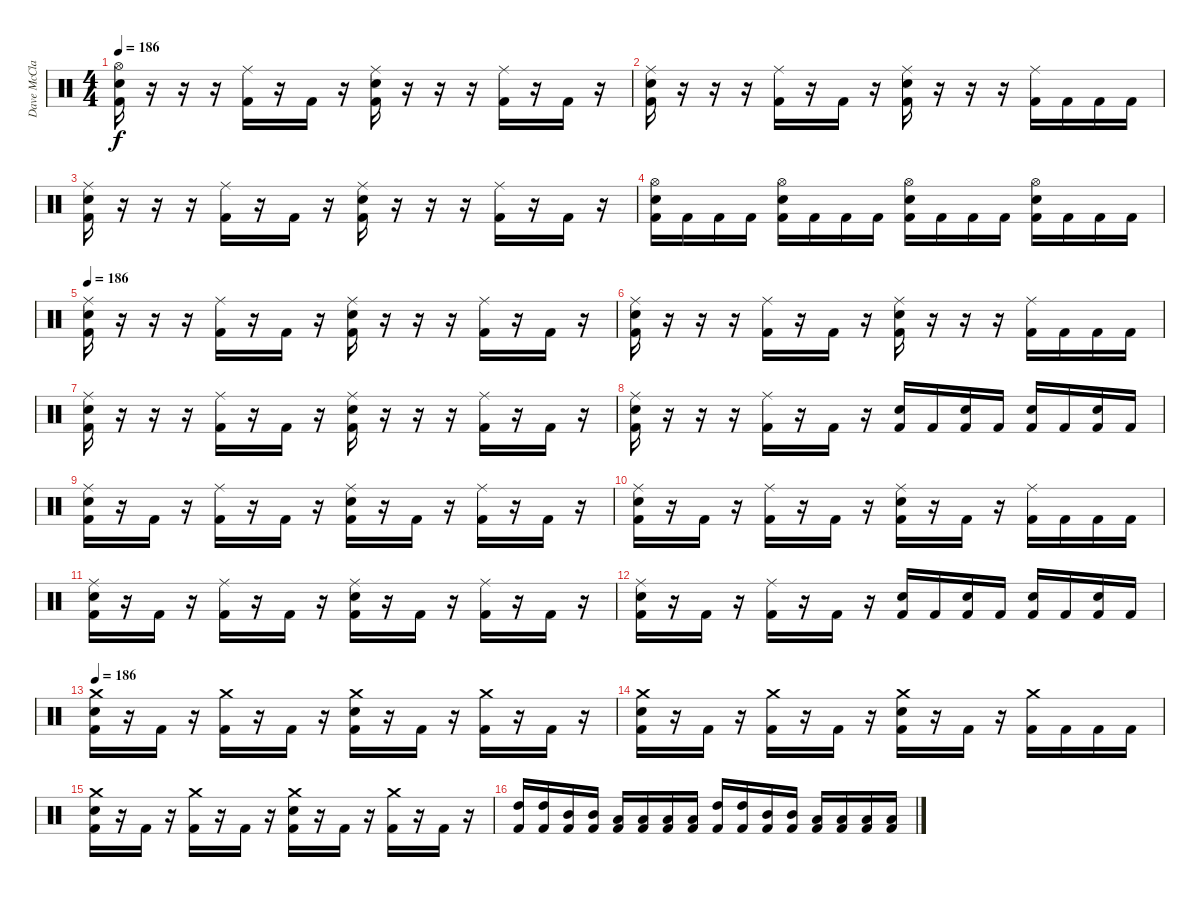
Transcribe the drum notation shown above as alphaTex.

\track ("Dave McClain" "Dave McCla") {instrument percussion}
\staff {score}
\articulation defaults
\ts (4 4)
\tempo 186
\clef neutral
\ks c
("Hi-Hat (open)" "Snare (hit) 2" "Kick (hit) 2").16{dy f} r.16 r.16 r.16 ("Ride (middle)" "Kick (hit) 2").16 r.16 "Kick (hit) 2".16 r.16 ("Ride (middle)" "Snare (hit) 2" "Kick (hit) 2").16 r.16 r.16 r.16 ("Ride (middle)" "Kick (hit) 2").16 r.16 "Kick (hit) 2".16 r.16 |
("Ride (middle)" "Snare (hit) 2" "Kick (hit) 2").16 r.16 r.16 r.16 ("Ride (middle)" "Kick (hit) 2").16 r.16 "Kick (hit) 2".16 r.16 ("Ride (middle)" "Snare (hit) 2" "Kick (hit) 2").16 r.16 r.16 r.16 ("Ride (middle)" "Kick (hit) 2").16 "Kick (hit) 2".16 "Kick (hit) 2".16 "Kick (hit) 2".16 |
("Ride (middle)" "Snare (hit) 2" "Kick (hit) 2").16 r.16 r.16 r.16 ("Ride (middle)" "Kick (hit) 2").16 r.16 "Kick (hit) 2".16 r.16 ("Ride (middle)" "Snare (hit) 2" "Kick (hit) 2").16 r.16 r.16 r.16 ("Ride (middle)" "Kick (hit) 2").16 r.16 "Kick (hit) 2".16 r.16 |
("Hi-Hat (open)" "Snare (hit) 2" "Kick (hit) 2").16 "Kick (hit) 2".16 "Kick (hit) 2".16 "Kick (hit) 2".16 ("Hi-Hat (open)" "Snare (hit) 2" "Kick (hit) 2").16 "Kick (hit) 2".16 "Kick (hit) 2".16 "Kick (hit) 2".16 ("Hi-Hat (open)" "Snare (hit) 2" "Kick (hit) 2").16 "Kick (hit) 2".16 "Kick (hit) 2".16 "Kick (hit) 2".16 ("Hi-Hat (open)" "Snare (hit) 2" "Kick (hit) 2").16 "Kick (hit) 2".16 "Kick (hit) 2".16 "Kick (hit) 2".16 |
\tempo 186
("Ride (middle)" "Snare (hit) 2" "Kick (hit) 2").16 r.16 r.16 r.16 ("Ride (middle)" "Kick (hit) 2").16 r.16 "Kick (hit) 2".16 r.16 ("Ride (middle)" "Snare (hit) 2" "Kick (hit) 2").16 r.16 r.16 r.16 ("Ride (middle)" "Kick (hit) 2").16 r.16 "Kick (hit) 2".16 r.16 |
("Ride (middle)" "Snare (hit) 2" "Kick (hit) 2").16 r.16 r.16 r.16 ("Ride (middle)" "Kick (hit) 2").16 r.16 "Kick (hit) 2".16 r.16 ("Ride (middle)" "Snare (hit) 2" "Kick (hit) 2").16 r.16 r.16 r.16 ("Ride (middle)" "Kick (hit) 2").16 "Kick (hit) 2".16 "Kick (hit) 2".16 "Kick (hit) 2".16 |
("Ride (middle)" "Snare (hit) 2" "Kick (hit) 2").16 r.16 r.16 r.16 ("Ride (middle)" "Kick (hit) 2").16 r.16 "Kick (hit) 2".16 r.16 ("Ride (middle)" "Snare (hit) 2" "Kick (hit) 2").16 r.16 r.16 r.16 ("Ride (middle)" "Kick (hit) 2").16 r.16 "Kick (hit) 2".16 r.16 |
("Ride (middle)" "Snare (hit) 2" "Kick (hit) 2").16 r.16 r.16 r.16 ("Ride (middle)" "Kick (hit) 2").16 r.16 "Kick (hit) 2".16 r.16 ("Snare (hit) 2" "Kick (hit) 2").16 "Kick (hit) 2".16 ("Snare (hit) 2" "Kick (hit) 2").16 "Kick (hit) 2".16 ("Snare (hit) 2" "Kick (hit) 2").16 "Kick (hit) 2".16 ("Snare (hit) 2" "Kick (hit) 2").16 "Kick (hit) 2".16 |
("Ride (middle)" "Snare (hit) 2" "Kick (hit) 2").16 r.16 "Kick (hit) 2".16 r.16 ("Ride (middle)" "Kick (hit) 2").16 r.16 "Kick (hit) 2".16 r.16 ("Ride (middle)" "Snare (hit) 2" "Kick (hit) 2").16 r.16 "Kick (hit) 2".16 r.16 ("Ride (middle)" "Kick (hit) 2").16 r.16 "Kick (hit) 2".16 r.16 |
("Ride (middle)" "Snare (hit) 2" "Kick (hit) 2").16 r.16 "Kick (hit) 2".16 r.16 ("Ride (middle)" "Kick (hit) 2").16 r.16 "Kick (hit) 2".16 r.16 ("Ride (middle)" "Snare (hit) 2" "Kick (hit) 2").16 r.16 "Kick (hit) 2".16 r.16 ("Ride (middle)" "Kick (hit) 2").16 "Kick (hit) 2".16 "Kick (hit) 2".16 "Kick (hit) 2".16 |
("Ride (middle)" "Snare (hit) 2" "Kick (hit) 2").16 r.16 "Kick (hit) 2".16 r.16 ("Ride (middle)" "Kick (hit) 2").16 r.16 "Kick (hit) 2".16 r.16 ("Ride (middle)" "Snare (hit) 2" "Kick (hit) 2").16 r.16 "Kick (hit) 2".16 r.16 ("Ride (middle)" "Kick (hit) 2").16 r.16 "Kick (hit) 2".16 r.16 |
("Ride (middle)" "Snare (hit) 2" "Kick (hit) 2").16 r.16 "Kick (hit) 2".16 r.16 ("Ride (middle)" "Kick (hit) 2").16 r.16 "Kick (hit) 2".16 r.16 ("Snare (hit) 2" "Kick (hit) 2").16 "Kick (hit) 2".16 ("Snare (hit) 2" "Kick (hit) 2").16 "Kick (hit) 2".16 ("Snare (hit) 2" "Kick (hit) 2").16 "Kick (hit) 2".16 ("Snare (hit) 2" "Kick (hit) 2").16 "Kick (hit) 2".16 |
\tempo 186
("Crash medium (hit)" "Snare (hit) 2" "Kick (hit) 2").16 r.16 "Kick (hit) 2".16 r.16 ("Crash medium (hit)" "Kick (hit) 2").16 r.16 "Kick (hit) 2".16 r.16 ("Crash medium (hit)" "Snare (hit) 2" "Kick (hit) 2").16 r.16 "Kick (hit) 2".16 r.16 ("Crash medium (hit)" "Kick (hit) 2").16 r.16 "Kick (hit) 2".16 r.16 |
("Crash medium (hit)" "Snare (hit) 2" "Kick (hit) 2").16 r.16 "Kick (hit) 2".16 r.16 ("Crash medium (hit)" "Kick (hit) 2").16 r.16 "Kick (hit) 2".16 r.16 ("Crash medium (hit)" "Snare (hit) 2" "Kick (hit) 2").16 r.16 "Kick (hit) 2".16 r.16 ("Crash medium (hit)" "Kick (hit) 2").16 "Kick (hit) 2".16 "Kick (hit) 2".16 "Kick (hit) 2".16 |
("Crash medium (hit)" "Snare (hit) 2" "Kick (hit) 2").16 r.16 "Kick (hit) 2".16 r.16 ("Crash medium (hit)" "Kick (hit) 2").16 r.16 "Kick (hit) 2".16 r.16 ("Crash medium (hit)" "Snare (hit) 2" "Kick (hit) 2").16 r.16 "Kick (hit) 2".16 r.16 ("Crash medium (hit)" "Kick (hit) 2").16 r.16 "Kick (hit) 2".16 r.16 |
("High Tom (hit)" "Kick (hit) 2").16 ("High Tom (hit)" "Kick (hit) 2").16 ("Mid Tom (hit)" "Kick (hit) 2").16 ("Mid Tom (hit)" "Kick (hit) 2").16 ("Low Tom (hit)" "Kick (hit) 2").16 ("Low Tom (hit)" "Kick (hit) 2").16 ("Low Tom (hit)" "Kick (hit) 2").16 ("Low Tom (hit)" "Kick (hit) 2").16 ("High Tom (hit)" "Kick (hit) 2").16 ("High Tom (hit)" "Kick (hit) 2").16 ("Mid Tom (hit)" "Kick (hit) 2").16 ("Mid Tom (hit)" "Kick (hit) 2").16 ("Low Tom (hit)" "Kick (hit) 2").16 ("Low Tom (hit)" "Kick (hit) 2").16 ("Low Tom (hit)" "Kick (hit) 2").16 ("Low Tom (hit)" "Kick (hit) 2").16
